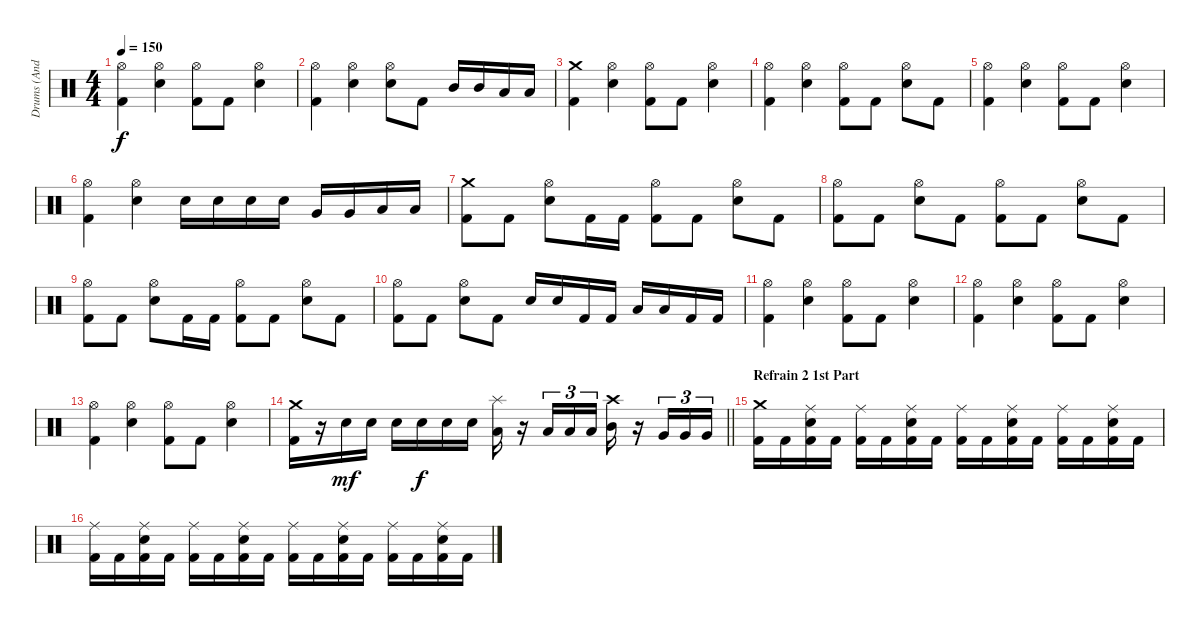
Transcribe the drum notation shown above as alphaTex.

\track ("Drums (Andy C)" "Drums (And") {instrument percussion}
\staff
\articulation defaults
\ts (4 4)
\tempo 150
\clef neutral
\ks c
("Hi-Hat (open)" "Kick (hit) 2").4{dy f} ("Hi-Hat (open)" "Electric Snare (hit)").4 ("Hi-Hat (open)" "Kick (hit) 2").8 "Kick (hit) 2".8 ("Hi-Hat (open)" "Electric Snare (hit)").4 |
("Hi-Hat (open)" "Kick (hit) 2").4 ("Hi-Hat (open)" "Electric Snare (hit)").4 ("Hi-Hat (open)" "Electric Snare (hit)").8 "Kick (hit) 2".8 "Mid Tom (hit)".16 "Mid Tom (hit)".16 "Low Tom (hit)".16 "Low Tom (hit)".16 |
("Crash medium (hit)" "Kick (hit) 2").4 ("Hi-Hat (open)" "Electric Snare (hit)").4 ("Hi-Hat (open)" "Kick (hit) 2").8 "Kick (hit) 2".8 ("Hi-Hat (open)" "Electric Snare (hit)").4 |
("Hi-Hat (open)" "Kick (hit) 2").4 ("Hi-Hat (open)" "Electric Snare (hit)").4 ("Hi-Hat (open)" "Kick (hit) 2").8 "Kick (hit) 2".8 ("Hi-Hat (open)" "Electric Snare (hit)").8 "Kick (hit) 2".8 |
("Hi-Hat (open)" "Kick (hit) 2").4 ("Hi-Hat (open)" "Electric Snare (hit)").4 ("Hi-Hat (open)" "Kick (hit) 2").8 "Kick (hit) 2".8 ("Hi-Hat (open)" "Electric Snare (hit)").4 |
("Hi-Hat (open)" "Kick (hit) 2").4 ("Hi-Hat (open)" "Electric Snare (hit)").4 "Electric Snare (hit)".16 "Electric Snare (hit)".16 "Electric Snare (hit)".16 "Electric Snare (hit)".16 "Very Low Tom (hit)".16 "Very Low Tom (hit)".16 "Low Floor Tom (hit)".16 "Low Floor Tom (hit)".16 |
("Crash medium (hit)" "Kick (hit) 2").8 "Kick (hit) 2".8 ("Hi-Hat (open)" "Electric Snare (hit)").8 "Kick (hit) 2".16 "Kick (hit) 2".16 ("Hi-Hat (open)" "Kick (hit) 2").8 "Kick (hit) 2".8 ("Hi-Hat (open)" "Electric Snare (hit)").8 "Kick (hit) 2".8 |
("Hi-Hat (open)" "Kick (hit) 2").8 "Kick (hit) 2".8 ("Hi-Hat (open)" "Electric Snare (hit)").8 "Kick (hit) 2".8 ("Hi-Hat (open)" "Kick (hit) 2").8 "Kick (hit) 2".8 ("Hi-Hat (open)" "Electric Snare (hit)").8 "Kick (hit) 2".8 |
("Hi-Hat (open)" "Kick (hit) 2").8 "Kick (hit) 2".8 ("Hi-Hat (open)" "Electric Snare (hit)").8 "Kick (hit) 2".16 "Kick (hit) 2".16 ("Hi-Hat (open)" "Kick (hit) 2").8 "Kick (hit) 2".8 ("Hi-Hat (open)" "Electric Snare (hit)").8 "Kick (hit) 2".8 |
("Hi-Hat (open)" "Kick (hit) 2").8 "Kick (hit) 2".8 ("Hi-Hat (open)" "Electric Snare (hit)").8 "Kick (hit) 2".8 "Electric Snare (hit)".16 "Electric Snare (hit)".16 "Kick (hit) 2".16 "Kick (hit) 2".16 "Low Tom (hit)".16 "Low Tom (hit)".16 "Kick (hit) 2".16 "Kick (hit) 2".16 |
("Hi-Hat (open)" "Kick (hit) 2").4 ("Hi-Hat (open)" "Electric Snare (hit)").4 ("Hi-Hat (open)" "Kick (hit) 2").8 "Kick (hit) 2".8 ("Hi-Hat (open)" "Electric Snare (hit)").4 |
("Hi-Hat (open)" "Kick (hit) 2").4 ("Hi-Hat (open)" "Electric Snare (hit)").4 ("Hi-Hat (open)" "Kick (hit) 2").8 "Kick (hit) 2".8 ("Hi-Hat (open)" "Electric Snare (hit)").4 |
("Hi-Hat (open)" "Kick (hit) 2").4 ("Hi-Hat (open)" "Electric Snare (hit)").4 ("Hi-Hat (open)" "Kick (hit) 2").8 "Kick (hit) 2".8 ("Hi-Hat (open)" "Electric Snare (hit)").4 |
\barLineRight lightlight
("Crash medium (hit)" "Kick (hit) 2").16 r.16 "Electric Snare (hit)".16{dy mf} "Electric Snare (hit)".16 "Electric Snare (hit)".16 "Electric Snare (hit)".16{dy f} "Electric Snare (hit)".16 "Electric Snare (hit)".16 ("Splash (hit)" "Low Tom (hit)").16 r.16 "Low Tom (hit)".16{tu (3 2)} "Low Tom (hit)".16{tu (3 2)} "Low Tom (hit)".16{tu (3 2)} ("Crash high (hit)" "Mid Tom (hit)").16 r.16 "Very Low Tom (hit)".16{tu (3 2)} "Very Low Tom (hit)".16{tu (3 2)} "Very Low Tom (hit)".16{tu (3 2)} |
\section ("" "Refrain 2 1st Part")
("Crash medium (hit)" "Kick (hit) 2").16 "Kick (hit) 2".16 ("Ride (middle)" "Kick (hit) 2" "Electric Snare (hit)").16 "Kick (hit) 2".16 ("Ride (middle)" "Kick (hit) 2").16 "Kick (hit) 2".16 ("Ride (middle)" "Kick (hit) 2" "Electric Snare (hit)").16 "Kick (hit) 2".16 ("Ride (middle)" "Kick (hit) 2").16 "Kick (hit) 2".16 ("Ride (middle)" "Kick (hit) 2" "Electric Snare (hit)").16 "Kick (hit) 2".16 ("Ride (middle)" "Kick (hit) 2").16 "Kick (hit) 2".16 ("Ride (middle)" "Kick (hit) 2" "Electric Snare (hit)").16 "Kick (hit) 2".16 |
("Ride (middle)" "Kick (hit) 2").16 "Kick (hit) 2".16 ("Ride (middle)" "Kick (hit) 2" "Electric Snare (hit)").16 "Kick (hit) 2".16 ("Ride (middle)" "Kick (hit) 2").16 "Kick (hit) 2".16 ("Ride (middle)" "Kick (hit) 2" "Electric Snare (hit)").16 "Kick (hit) 2".16 ("Ride (middle)" "Kick (hit) 2").16 "Kick (hit) 2".16 ("Ride (middle)" "Kick (hit) 2" "Electric Snare (hit)").16 "Kick (hit) 2".16 ("Ride (middle)" "Kick (hit) 2").16 "Kick (hit) 2".16 ("Ride (middle)" "Kick (hit) 2" "Electric Snare (hit)").16 "Kick (hit) 2".16
